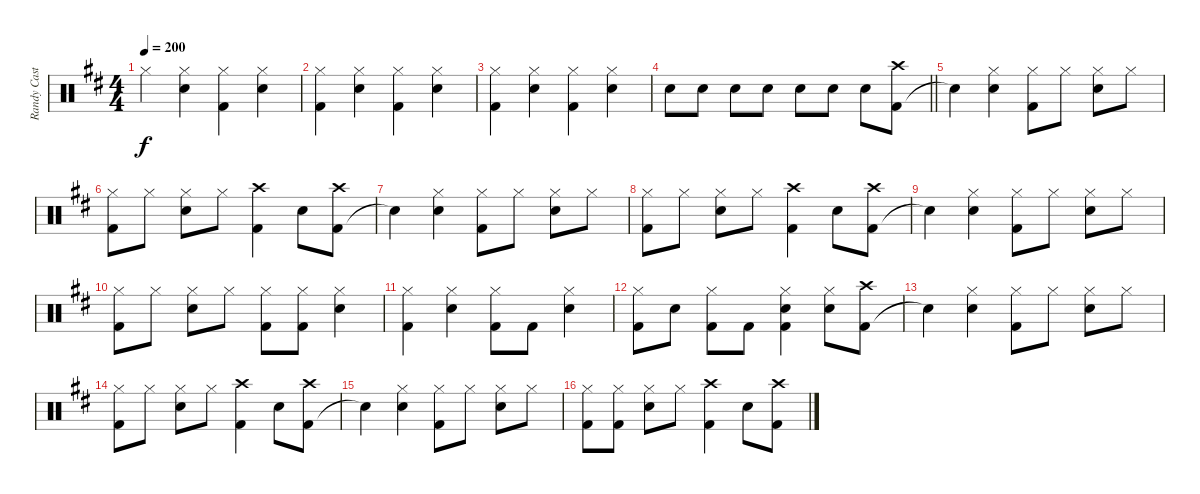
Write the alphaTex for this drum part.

\track ("Randy Castillo" "Randy Cast") {instrument percussion}
\staff {score}
\articulation defaults
\ts (4 4)
\tempo 200
\clef neutral
\ks d "Hi-Hat (closed)".4{dy f}
("Hi-Hat (closed)" "Snare (hit) 2").4 ("Hi-Hat (closed)" "Kick (hit) 2").4 ("Hi-Hat (closed)" "Snare (hit) 2").4 |
("Hi-Hat (closed)" "Kick (hit) 2").4 ("Hi-Hat (closed)" "Snare (hit) 2").4 ("Hi-Hat (closed)" "Kick (hit) 2").4 ("Hi-Hat (closed)" "Snare (hit) 2").4 |
("Hi-Hat (closed)" "Kick (hit) 2").4 ("Hi-Hat (closed)" "Snare (hit) 2").4 ("Hi-Hat (closed)" "Kick (hit) 2").4 ("Hi-Hat (closed)" "Snare (hit) 2").4 |
\barLineRight lightlight "Snare (hit) 2".8 "Snare (hit) 2".8 "Snare (hit) 2".8 "Snare (hit) 2".8 "Snare (hit) 2".8 "Snare (hit) 2".8 "Snare (hit) 2".8
("Kick (hit) 2" "Crash high (hit)").8 |
"Snare (hit)"{t}.4 ("Hi-Hat (closed)" "Snare (hit) 2").4 ("Hi-Hat (closed)" "Kick (hit) 2").8 "Hi-Hat (closed)".8 ("Hi-Hat (closed)" "Snare (hit) 2").8 "Hi-Hat (closed)".8 |
("Hi-Hat (closed)" "Kick (hit) 2").8 "Hi-Hat (closed)".8 ("Hi-Hat (closed)" "Snare (hit) 2").8 "Hi-Hat (closed)".8 ("Kick (hit) 2" "Crash high (hit)").4 "Snare (hit) 2".8 ("Kick (hit) 2" "Crash high (hit)").8 |
"Snare (hit)"{t}.4 ("Hi-Hat (closed)" "Snare (hit) 2").4 ("Hi-Hat (closed)" "Kick (hit) 2").8 "Hi-Hat (closed)".8 ("Hi-Hat (closed)" "Snare (hit) 2").8 "Hi-Hat (closed)".8 |
("Hi-Hat (closed)" "Kick (hit) 2").8 "Hi-Hat (closed)".8 ("Hi-Hat (closed)" "Snare (hit) 2").8 "Hi-Hat (closed)".8 ("Kick (hit) 2" "Crash high (hit)").4 "Snare (hit) 2".8 ("Kick (hit) 2" "Crash high (hit)").8 |
"Snare (hit)"{t}.4 ("Hi-Hat (closed)" "Snare (hit) 2").4 ("Hi-Hat (closed)" "Kick (hit) 2").8 "Hi-Hat (closed)".8 ("Hi-Hat (closed)" "Snare (hit) 2").8 "Hi-Hat (closed)".8 |
("Hi-Hat (closed)" "Kick (hit) 2").8 "Hi-Hat (closed)".8 ("Hi-Hat (closed)" "Snare (hit) 2").8 "Hi-Hat (closed)".8 ("Hi-Hat (closed)" "Kick (hit) 2").8 ("Hi-Hat (closed)" "Kick (hit) 2").8 ("Hi-Hat (closed)" "Snare (hit) 2").4 |
("Hi-Hat (closed)" "Kick (hit) 2").4 ("Hi-Hat (closed)" "Snare (hit) 2").4 ("Hi-Hat (closed)" "Kick (hit) 2").8 "Kick (hit) 2".8 ("Hi-Hat (closed)" "Snare (hit) 2").4 |
("Hi-Hat (closed)" "Kick (hit) 2").8 "Snare (hit) 2".8 ("Hi-Hat (closed)" "Kick (hit) 2").8 "Kick (hit) 2".8 ("Hi-Hat (closed)" "Snare (hit) 2" "Kick (hit) 2").4 ("Hi-Hat (closed)" "Snare (hit) 2").8 ("Kick (hit) 2" "Crash high (hit)").8 |
"Snare (hit)"{t}.4 ("Hi-Hat (closed)" "Snare (hit) 2").4 ("Hi-Hat (closed)" "Kick (hit) 2").8 "Hi-Hat (closed)".8 ("Hi-Hat (closed)" "Snare (hit) 2").8 "Hi-Hat (closed)".8 |
("Hi-Hat (closed)" "Kick (hit) 2").8 "Hi-Hat (closed)".8 ("Hi-Hat (closed)" "Snare (hit) 2").8 "Hi-Hat (closed)".8 ("Kick (hit) 2" "Crash high (hit)").4 "Snare (hit) 2".8 ("Kick (hit) 2" "Crash high (hit)").8 |
"Snare (hit)"{t}.4 ("Hi-Hat (closed)" "Snare (hit) 2").4 ("Hi-Hat (closed)" "Kick (hit) 2").8 "Hi-Hat (closed)".8 ("Hi-Hat (closed)" "Snare (hit) 2").8 "Hi-Hat (closed)".8 |
("Hi-Hat (closed)" "Kick (hit) 2").8 ("Hi-Hat (closed)" "Kick (hit) 2").8 ("Hi-Hat (closed)" "Snare (hit) 2").8 "Hi-Hat (closed)".8 ("Kick (hit) 2" "Crash high (hit)").4 "Snare (hit) 2".8 ("Kick (hit) 2" "Crash high (hit)").8
